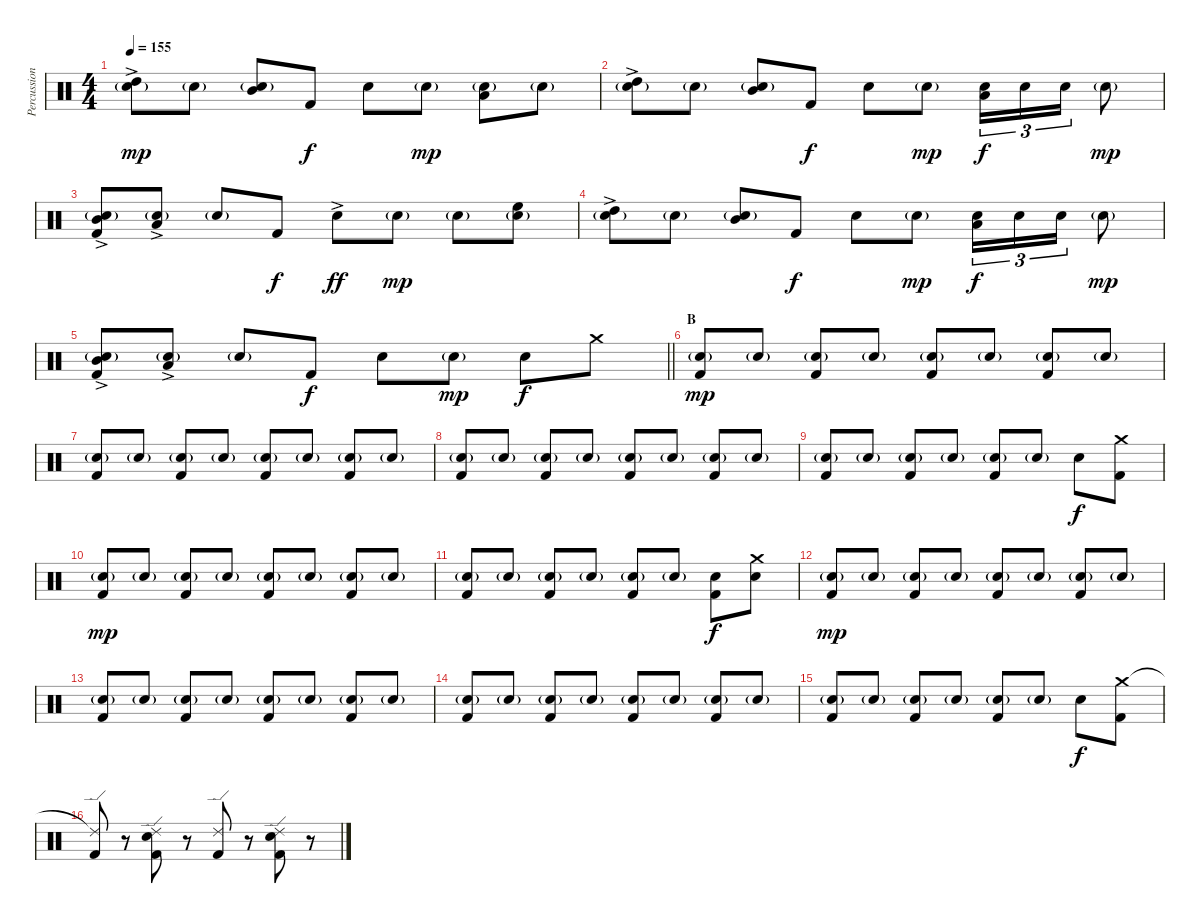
\track ("Percussion" "Percussion") {instrument percussion}
\staff {score}
\articulation defaults
\ts (4 4)
\tempo 155
\clef neutral
\ks c
("High Tom (hit)"{ac} "Snare (hit) 2"{g}).8{dy mp} "Snare (hit) 2"{g}.8 ("Mid Tom (hit)" "Snare (hit) 2"{g}).8 "Kick (hit) 2".8{dy f} "Snare (hit) 2".8 "Snare (hit) 2"{g}.8{dy mp} ("Low Tom (hit)" "Snare (hit) 2"{g}).8 "Snare (hit) 2"{g}.8 |
("High Tom (hit)"{ac} "Snare (hit) 2"{g}).8 "Snare (hit) 2"{g}.8 ("Mid Tom (hit)" "Snare (hit) 2"{g}).8 "Kick (hit) 2".8{dy f} "Snare (hit) 2".8 "Snare (hit) 2"{g}.8{dy mp} ("Low Tom (hit)" "Snare (hit) 2").16{tu (3 2) dy f} "Snare (hit) 2".16{tu (3 2)} "Snare (hit) 2".16{tu (3 2)} "Snare (hit) 2"{g}.8{dy mp} |
("Mid Tom (hit)"{ac} "Snare (hit) 2"{g} "Kick (hit) 2").8 ("Low Tom (hit)"{ac} "Snare (hit) 2"{g}).8 "Snare (hit) 2"{g}.8 "Kick (hit) 2".8{dy f} "Snare (hit) 2"{ac}.8{dy ff} "Snare (hit) 2"{g}.8{dy mp} "Snare (hit) 2"{g}.8 ("High Floor Tom (hit)" "Snare (hit) 2"{g}).8 |
("High Tom (hit)"{ac} "Snare (hit) 2"{g}).8 "Snare (hit) 2"{g}.8 ("Mid Tom (hit)" "Snare (hit) 2"{g}).8 "Kick (hit) 2".8{dy f} "Snare (hit) 2".8 "Snare (hit) 2"{g}.8{dy mp} ("Low Tom (hit)" "Snare (hit) 2").16{tu (3 2) dy f} "Snare (hit) 2".16{tu (3 2)} "Snare (hit) 2".16{tu (3 2)} "Snare (hit) 2"{g}.8{dy mp} |
\barLineRight lightlight
("Mid Tom (hit)"{ac} "Snare (hit) 2"{g} "Kick (hit) 2").8 ("Low Tom (hit)"{ac} "Snare (hit) 2"{g}).8 "Snare (hit) 2"{g}.8 "Kick (hit) 2".8{dy f} "Snare (hit) 2".8 "Snare (hit) 2"{g}.8{dy mp} "Snare (hit) 2".8{dy f} "Crash medium (hit)".8 |
\section ("" "B")
("Snare (hit) 2"{g} "Kick (hit) 2").8{dy mp} "Snare (hit) 2"{g}.8 ("Snare (hit) 2"{g} "Kick (hit) 2").8 "Snare (hit) 2"{g}.8 ("Snare (hit) 2"{g} "Kick (hit) 2").8 "Snare (hit) 2"{g}.8 ("Snare (hit) 2"{g} "Kick (hit) 2").8 "Snare (hit) 2"{g}.8 |
("Snare (hit) 2"{g} "Kick (hit) 2").8 "Snare (hit) 2"{g}.8 ("Snare (hit) 2"{g} "Kick (hit) 2").8 "Snare (hit) 2"{g}.8 ("Snare (hit) 2"{g} "Kick (hit) 2").8 "Snare (hit) 2"{g}.8 ("Snare (hit) 2"{g} "Kick (hit) 2").8 "Snare (hit) 2"{g}.8 |
("Snare (hit) 2"{g} "Kick (hit) 2").8 "Snare (hit) 2"{g}.8 ("Snare (hit) 2"{g} "Kick (hit) 2").8 "Snare (hit) 2"{g}.8 ("Snare (hit) 2"{g} "Kick (hit) 2").8 "Snare (hit) 2"{g}.8 ("Snare (hit) 2"{g} "Kick (hit) 2").8 "Snare (hit) 2"{g}.8 |
("Snare (hit) 2"{g} "Kick (hit) 2").8 "Snare (hit) 2"{g}.8 ("Snare (hit) 2"{g} "Kick (hit) 2").8 "Snare (hit) 2"{g}.8 ("Snare (hit) 2"{g} "Kick (hit) 2").8 "Snare (hit) 2"{g}.8 "Snare (hit) 2".8{dy f} ("Crash medium (hit)" "Kick (hit) 2").8 |
("Snare (hit) 2"{g} "Kick (hit) 2").8{dy mp} "Snare (hit) 2"{g}.8 ("Snare (hit) 2"{g} "Kick (hit) 2").8 "Snare (hit) 2"{g}.8 ("Snare (hit) 2"{g} "Kick (hit) 2").8 "Snare (hit) 2"{g}.8 ("Snare (hit) 2"{g} "Kick (hit) 2").8 "Snare (hit) 2"{g}.8 |
("Snare (hit) 2"{g} "Kick (hit) 2").8 "Snare (hit) 2"{g}.8 ("Snare (hit) 2"{g} "Kick (hit) 2").8 "Snare (hit) 2"{g}.8 ("Snare (hit) 2"{g} "Kick (hit) 2").8 "Snare (hit) 2"{g}.8 ("Snare (hit) 2" "Kick (hit) 2").8{dy f} ("Crash medium (hit)" "Snare (hit) 2").8 |
("Snare (hit) 2"{g} "Kick (hit) 2").8{dy mp} "Snare (hit) 2"{g}.8 ("Snare (hit) 2"{g} "Kick (hit) 2").8 "Snare (hit) 2"{g}.8 ("Snare (hit) 2"{g} "Kick (hit) 2").8 "Snare (hit) 2"{g}.8 ("Snare (hit) 2"{g} "Kick (hit) 2").8 "Snare (hit) 2"{g}.8 |
("Snare (hit) 2"{g} "Kick (hit) 2").8 "Snare (hit) 2"{g}.8 ("Snare (hit) 2"{g} "Kick (hit) 2").8 "Snare (hit) 2"{g}.8 ("Snare (hit) 2"{g} "Kick (hit) 2").8 "Snare (hit) 2"{g}.8 ("Snare (hit) 2"{g} "Kick (hit) 2").8 "Snare (hit) 2"{g}.8 |
("Snare (hit) 2"{g} "Kick (hit) 2").8 "Snare (hit) 2"{g}.8 ("Snare (hit) 2"{g} "Kick (hit) 2").8 "Snare (hit) 2"{g}.8 ("Snare (hit) 2"{g} "Kick (hit) 2").8 "Snare (hit) 2"{g}.8 ("Snare (hit) 2"{g} "Kick (hit) 2").8 "Snare (hit) 2"{g}.8 |
("Snare (hit) 2"{g} "Kick (hit) 2").8 "Snare (hit) 2"{g}.8 ("Snare (hit) 2"{g} "Kick (hit) 2").8 "Snare (hit) 2"{g}.8 ("Snare (hit) 2"{g} "Kick (hit) 2").8 "Snare (hit) 2"{g}.8 "Snare (hit) 2".8{dy f} ("Crash medium (hit)" "Kick (hit) 2").8 |
("Ride (edge) 2"{t} "Kick (hit) 2").8 r.8 ("Ride (edge) 2" "Snare (hit) 2" "Kick (hit) 2").8 r.8 ("Ride (edge) 2" "Kick (hit) 2").8 r.8 ("Ride (edge) 2" "Snare (hit) 2" "Kick (hit) 2").8 r.8
